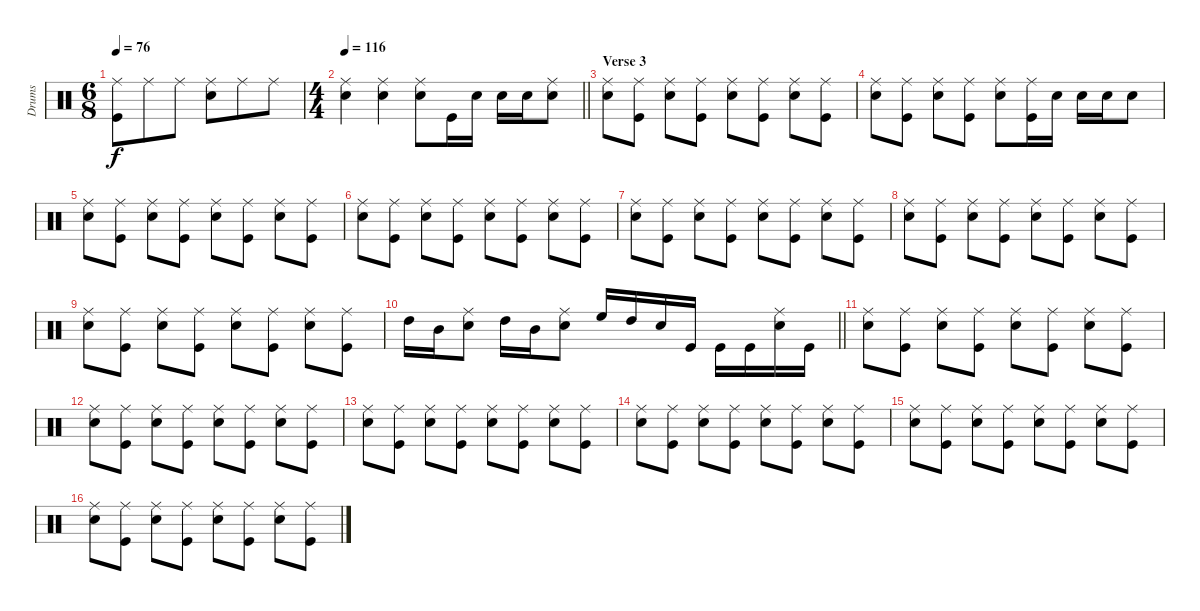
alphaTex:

\track ("Drums" "Drums") {instrument percussion}
\staff {score}
\articulation defaults
\ts (6 8)
\tempo 76
\clef neutral
\ks c
("Ride (middle)" "Kick (hit)").8{dy f} "Ride (middle)".8 "Ride (middle)".8 ("Ride (middle)" "Snare (hit) 2").8 "Ride (middle)".8 "Ride (middle)".8 |
\ts (4 4)
\tempo 116
\barLineRight lightlight
("Ride (middle)" "Snare (hit) 2").4 ("Ride (middle)" "Snare (hit) 2").4 ("Ride (middle)" "Snare (hit) 2").8 "Kick (hit)".16 "Snare (hit) 2".16 "Snare (hit) 2".16 "Snare (hit) 2".16 ("Ride (middle)" "Snare (hit) 2").8 |
\section ("" "Verse 3")
("Ride (middle)" "Snare (hit) 2").8 ("Ride (middle)" "Kick (hit)").8 ("Ride (middle)" "Snare (hit) 2").8 ("Ride (middle)" "Kick (hit)").8 ("Ride (middle)" "Snare (hit) 2").8 ("Ride (middle)" "Kick (hit)").8 ("Ride (middle)" "Snare (hit) 2").8 ("Ride (middle)" "Kick (hit)").8 |
("Ride (middle)" "Snare (hit) 2").8 ("Ride (middle)" "Kick (hit)").8 ("Ride (middle)" "Snare (hit) 2").8 ("Ride (middle)" "Kick (hit)").8 ("Ride (middle)" "Snare (hit) 2").8 ("Ride (middle)" "Kick (hit)").16 "Snare (hit) 2".16 "Snare (hit) 2".16 "Snare (hit) 2".16 "Snare (hit) 2".8 |
("Ride (middle)" "Snare (hit) 2").8 ("Ride (middle)" "Kick (hit)").8 ("Ride (middle)" "Snare (hit) 2").8 ("Ride (middle)" "Kick (hit)").8 ("Ride (middle)" "Snare (hit) 2").8 ("Ride (middle)" "Kick (hit)").8 ("Ride (middle)" "Snare (hit) 2").8 ("Ride (middle)" "Kick (hit)").8 |
("Ride (middle)" "Snare (hit) 2").8 ("Ride (middle)" "Kick (hit)").8 ("Ride (middle)" "Snare (hit) 2").8 ("Ride (middle)" "Kick (hit)").8 ("Ride (middle)" "Snare (hit) 2").8 ("Ride (middle)" "Kick (hit)").8 ("Ride (middle)" "Snare (hit) 2").8 ("Ride (middle)" "Kick (hit)").8 |
("Ride (middle)" "Snare (hit) 2").8 ("Ride (middle)" "Kick (hit)").8 ("Ride (middle)" "Snare (hit) 2").8 ("Ride (middle)" "Kick (hit)").8 ("Ride (middle)" "Snare (hit) 2").8 ("Ride (middle)" "Kick (hit)").8 ("Ride (middle)" "Snare (hit) 2").8 ("Ride (middle)" "Kick (hit)").8 |
("Ride (middle)" "Snare (hit) 2").8 ("Ride (middle)" "Kick (hit)").8 ("Ride (middle)" "Snare (hit) 2").8 ("Ride (middle)" "Kick (hit)").8 ("Ride (middle)" "Snare (hit) 2").8 ("Ride (middle)" "Kick (hit)").8 ("Ride (middle)" "Snare (hit) 2").8 ("Ride (middle)" "Kick (hit)").8 |
("Ride (middle)" "Snare (hit) 2").8 ("Ride (middle)" "Kick (hit)").8 ("Ride (middle)" "Snare (hit) 2").8 ("Ride (middle)" "Kick (hit)").8 ("Ride (middle)" "Snare (hit) 2").8 ("Ride (middle)" "Kick (hit)").8 ("Ride (middle)" "Snare (hit) 2").8 ("Ride (middle)" "Kick (hit)").8 |
\barLineRight lightlight "High Tom (hit)".16 "Mid Tom (hit)".16
("Ride (middle)" "Snare (hit) 2").8 "High Tom (hit)".16 "Mid Tom (hit)".16 ("Ride (middle)" "Snare (hit) 2").8 "High Floor Tom (hit)".16 "High Tom (hit)".16 "Snare (hit) 2".16 "Kick (hit)".16 "Kick (hit)".16 "Kick (hit)".16 ("Ride (middle)" "Snare (hit) 2").16 "Kick (hit)".16 |
("Ride (middle)" "Snare (hit) 2").8 ("Ride (middle)" "Kick (hit)").8 ("Ride (middle)" "Snare (hit) 2").8 ("Ride (middle)" "Kick (hit)").8 ("Ride (middle)" "Snare (hit) 2").8 ("Ride (middle)" "Kick (hit)").8 ("Ride (middle)" "Snare (hit) 2").8 ("Ride (middle)" "Kick (hit)").8 |
("Ride (middle)" "Snare (hit) 2").8 ("Ride (middle)" "Kick (hit)").8 ("Ride (middle)" "Snare (hit) 2").8 ("Ride (middle)" "Kick (hit)").8 ("Ride (middle)" "Snare (hit) 2").8 ("Ride (middle)" "Kick (hit)").8 ("Ride (middle)" "Snare (hit) 2").8 ("Ride (middle)" "Kick (hit)").8 |
("Ride (middle)" "Snare (hit) 2").8 ("Ride (middle)" "Kick (hit)").8 ("Ride (middle)" "Snare (hit) 2").8 ("Ride (middle)" "Kick (hit)").8 ("Ride (middle)" "Snare (hit) 2").8 ("Ride (middle)" "Kick (hit)").8 ("Ride (middle)" "Snare (hit) 2").8 ("Ride (middle)" "Kick (hit)").8 |
("Ride (middle)" "Snare (hit) 2").8 ("Ride (middle)" "Kick (hit)").8 ("Ride (middle)" "Snare (hit) 2").8 ("Ride (middle)" "Kick (hit)").8 ("Ride (middle)" "Snare (hit) 2").8 ("Ride (middle)" "Kick (hit)").8 ("Ride (middle)" "Snare (hit) 2").8 ("Ride (middle)" "Kick (hit)").8 |
("Ride (middle)" "Snare (hit) 2").8 ("Ride (middle)" "Kick (hit)").8 ("Ride (middle)" "Snare (hit) 2").8 ("Ride (middle)" "Kick (hit)").8 ("Ride (middle)" "Snare (hit) 2").8 ("Ride (middle)" "Kick (hit)").8 ("Ride (middle)" "Snare (hit) 2").8 ("Ride (middle)" "Kick (hit)").8 |
("Ride (middle)" "Snare (hit) 2").8 ("Ride (middle)" "Kick (hit)").8 ("Ride (middle)" "Snare (hit) 2").8 ("Ride (middle)" "Kick (hit)").8 ("Ride (middle)" "Snare (hit) 2").8 ("Ride (middle)" "Kick (hit)").8 ("Ride (middle)" "Snare (hit) 2").8 ("Ride (middle)" "Kick (hit)").8
